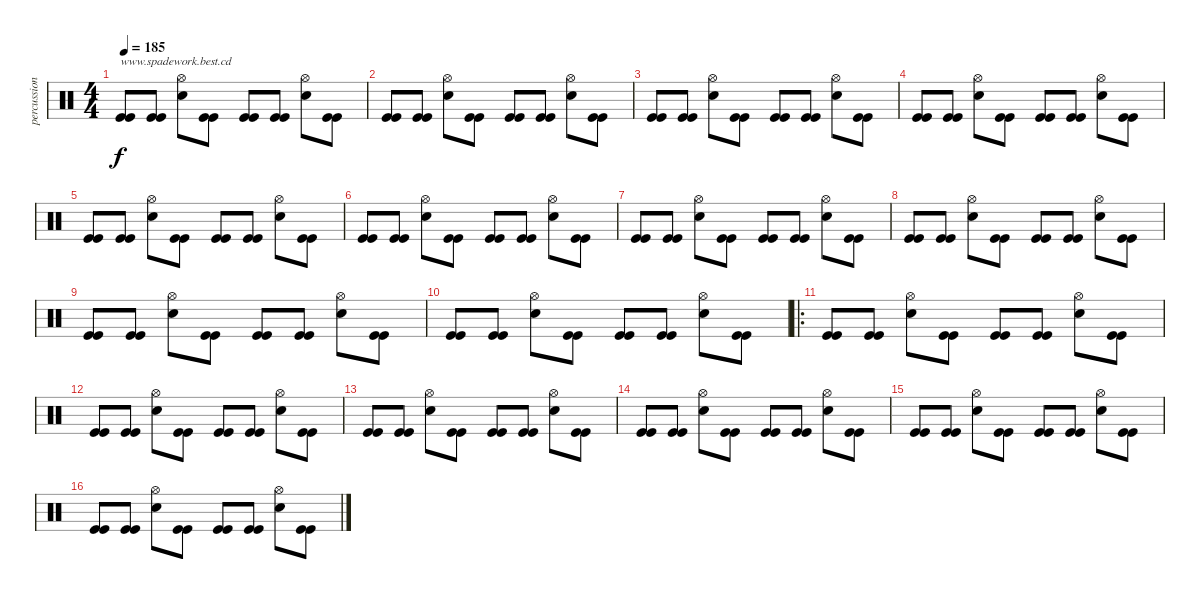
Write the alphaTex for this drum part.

\track ("percussions" "percussion") {instrument percussion}
\staff {score}
\articulation defaults
\ts (4 4)
\tempo 185
\clef neutral
\ks c
("Kick (hit)" "Kick (hit)").8{txt "www.spadework.best.cd" dy f} ("Kick (hit)" "Kick (hit)").8 ("Snare (hit) 2" "Hi-Hat (open)").8 ("Kick (hit)" "Kick (hit)").8 ("Kick (hit)" "Kick (hit)").8 ("Kick (hit)" "Kick (hit)").8 ("Snare (hit) 2" "Hi-Hat (open)").8 ("Kick (hit)" "Kick (hit)").8 |
("Kick (hit)" "Kick (hit)").8 ("Kick (hit)" "Kick (hit)").8 ("Snare (hit) 2" "Hi-Hat (open)").8 ("Kick (hit)" "Kick (hit)").8 ("Kick (hit)" "Kick (hit)").8 ("Kick (hit)" "Kick (hit)").8 ("Snare (hit) 2" "Hi-Hat (open)").8 ("Kick (hit)" "Kick (hit)").8 |
("Kick (hit)" "Kick (hit)").8 ("Kick (hit)" "Kick (hit)").8 ("Snare (hit) 2" "Hi-Hat (open)").8 ("Kick (hit)" "Kick (hit)").8 ("Kick (hit)" "Kick (hit)").8 ("Kick (hit)" "Kick (hit)").8 ("Snare (hit) 2" "Hi-Hat (open)").8 ("Kick (hit)" "Kick (hit)").8 |
("Kick (hit)" "Kick (hit)").8 ("Kick (hit)" "Kick (hit)").8 ("Snare (hit) 2" "Hi-Hat (open)").8 ("Kick (hit)" "Kick (hit)").8 ("Kick (hit)" "Kick (hit)").8 ("Kick (hit)" "Kick (hit)").8 ("Snare (hit) 2" "Hi-Hat (open)").8 ("Kick (hit)" "Kick (hit)").8 |
("Kick (hit)" "Kick (hit)").8 ("Kick (hit)" "Kick (hit)").8 ("Snare (hit) 2" "Hi-Hat (open)").8 ("Kick (hit)" "Kick (hit)").8 ("Kick (hit)" "Kick (hit)").8 ("Kick (hit)" "Kick (hit)").8 ("Snare (hit) 2" "Hi-Hat (open)").8 ("Kick (hit)" "Kick (hit)").8 |
("Kick (hit)" "Kick (hit)").8 ("Kick (hit)" "Kick (hit)").8 ("Snare (hit) 2" "Hi-Hat (open)").8 ("Kick (hit)" "Kick (hit)").8 ("Kick (hit)" "Kick (hit)").8 ("Kick (hit)" "Kick (hit)").8 ("Snare (hit) 2" "Hi-Hat (open)").8 ("Kick (hit)" "Kick (hit)").8 |
("Kick (hit)" "Kick (hit)").8 ("Kick (hit)" "Kick (hit)").8 ("Snare (hit) 2" "Hi-Hat (open)").8 ("Kick (hit)" "Kick (hit)").8 ("Kick (hit)" "Kick (hit)").8 ("Kick (hit)" "Kick (hit)").8 ("Snare (hit) 2" "Hi-Hat (open)").8 ("Kick (hit)" "Kick (hit)").8 |
("Kick (hit)" "Kick (hit)").8 ("Kick (hit)" "Kick (hit)").8 ("Snare (hit) 2" "Hi-Hat (open)").8 ("Kick (hit)" "Kick (hit)").8 ("Kick (hit)" "Kick (hit)").8 ("Kick (hit)" "Kick (hit)").8 ("Snare (hit) 2" "Hi-Hat (open)").8 ("Kick (hit)" "Kick (hit)").8 |
("Kick (hit)" "Kick (hit)").8 ("Kick (hit)" "Kick (hit)").8 ("Snare (hit) 2" "Hi-Hat (open)").8 ("Kick (hit)" "Kick (hit)").8 ("Kick (hit)" "Kick (hit)").8 ("Kick (hit)" "Kick (hit)").8 ("Snare (hit) 2" "Hi-Hat (open)").8 ("Kick (hit)" "Kick (hit)").8 |
("Kick (hit)" "Kick (hit)").8 ("Kick (hit)" "Kick (hit)").8 ("Snare (hit) 2" "Hi-Hat (open)").8 ("Kick (hit)" "Kick (hit)").8 ("Kick (hit)" "Kick (hit)").8 ("Kick (hit)" "Kick (hit)").8 ("Snare (hit) 2" "Hi-Hat (open)").8 ("Kick (hit)" "Kick (hit)").8 |
\ro
("Kick (hit)" "Kick (hit)").8 ("Kick (hit)" "Kick (hit)").8 ("Snare (hit) 2" "Hi-Hat (open)").8 ("Kick (hit)" "Kick (hit)").8 ("Kick (hit)" "Kick (hit)").8 ("Kick (hit)" "Kick (hit)").8 ("Snare (hit) 2" "Hi-Hat (open)").8 ("Kick (hit)" "Kick (hit)").8 |
("Kick (hit)" "Kick (hit)").8 ("Kick (hit)" "Kick (hit)").8 ("Snare (hit) 2" "Hi-Hat (open)").8 ("Kick (hit)" "Kick (hit)").8 ("Kick (hit)" "Kick (hit)").8 ("Kick (hit)" "Kick (hit)").8 ("Snare (hit) 2" "Hi-Hat (open)").8 ("Kick (hit)" "Kick (hit)").8 |
("Kick (hit)" "Kick (hit)").8 ("Kick (hit)" "Kick (hit)").8 ("Snare (hit) 2" "Hi-Hat (open)").8 ("Kick (hit)" "Kick (hit)").8 ("Kick (hit)" "Kick (hit)").8 ("Kick (hit)" "Kick (hit)").8 ("Snare (hit) 2" "Hi-Hat (open)").8 ("Kick (hit)" "Kick (hit)").8 |
("Kick (hit)" "Kick (hit)").8 ("Kick (hit)" "Kick (hit)").8 ("Snare (hit) 2" "Hi-Hat (open)").8 ("Kick (hit)" "Kick (hit)").8 ("Kick (hit)" "Kick (hit)").8 ("Kick (hit)" "Kick (hit)").8 ("Snare (hit) 2" "Hi-Hat (open)").8 ("Kick (hit)" "Kick (hit)").8 |
("Kick (hit)" "Kick (hit)").8 ("Kick (hit)" "Kick (hit)").8 ("Snare (hit) 2" "Hi-Hat (open)").8 ("Kick (hit)" "Kick (hit)").8 ("Kick (hit)" "Kick (hit)").8 ("Kick (hit)" "Kick (hit)").8 ("Snare (hit) 2" "Hi-Hat (open)").8 ("Kick (hit)" "Kick (hit)").8 |
("Kick (hit)" "Kick (hit)").8 ("Kick (hit)" "Kick (hit)").8 ("Snare (hit) 2" "Hi-Hat (open)").8 ("Kick (hit)" "Kick (hit)").8 ("Kick (hit)" "Kick (hit)").8 ("Kick (hit)" "Kick (hit)").8 ("Snare (hit) 2" "Hi-Hat (open)").8 ("Kick (hit)" "Kick (hit)").8
